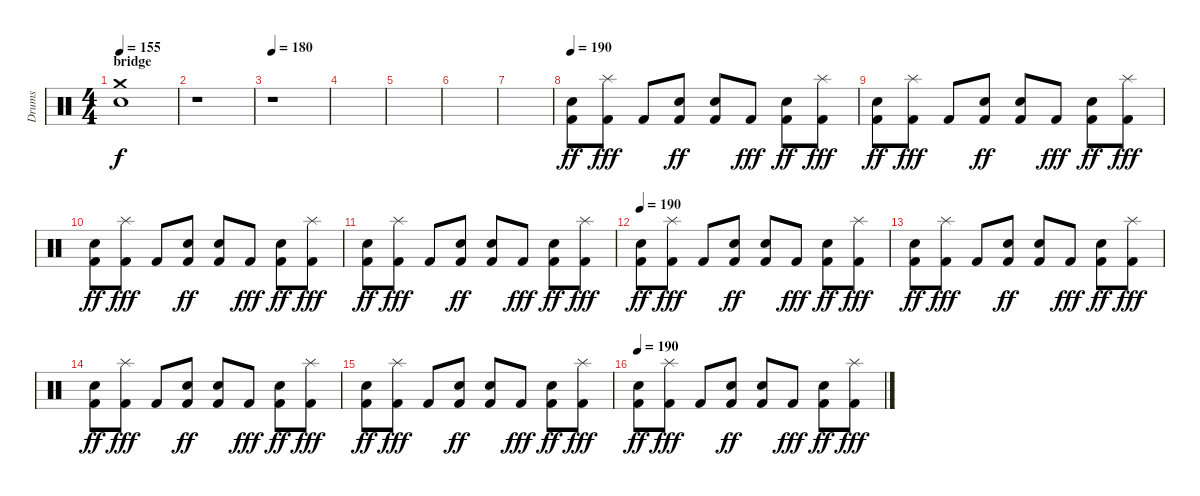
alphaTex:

\track ("Drums" "Drums") {instrument percussion}
\staff {score}
\articulation defaults
\ts (4 4)
\section ("" "bridge")
\tempo 155
\clef neutral
\ks c
("Electric Snare (hit)" "Crash medium (hit)").1{dy f} |
r.1 |
\tempo 180
r.1 |
|
|
|
|
\tempo 190
("Kick (hit) 2" "Electric Snare (hit)").8{dy ff} ("Kick (hit) 2" "Splash (hit)").8{dy fff} "Kick (hit) 2".8 ("Kick (hit) 2" "Electric Snare (hit)").8{dy ff} ("Kick (hit) 2" "Electric Snare (hit)").8 "Kick (hit) 2".8{dy fff} ("Kick (hit) 2" "Electric Snare (hit)").8{dy ff} ("Kick (hit) 2" "Splash (hit)").8{dy fff} |
("Kick (hit) 2" "Electric Snare (hit)").8{dy ff} ("Kick (hit) 2" "Splash (hit)").8{dy fff} "Kick (hit) 2".8 ("Kick (hit) 2" "Electric Snare (hit)").8{dy ff} ("Kick (hit) 2" "Electric Snare (hit)").8 "Kick (hit) 2".8{dy fff} ("Kick (hit) 2" "Electric Snare (hit)").8{dy ff} ("Kick (hit) 2" "Splash (hit)").8{dy fff} |
("Kick (hit) 2" "Electric Snare (hit)").8{dy ff} ("Kick (hit) 2" "Splash (hit)").8{dy fff} "Kick (hit) 2".8 ("Kick (hit) 2" "Electric Snare (hit)").8{dy ff} ("Kick (hit) 2" "Electric Snare (hit)").8 "Kick (hit) 2".8{dy fff} ("Kick (hit) 2" "Electric Snare (hit)").8{dy ff} ("Kick (hit) 2" "Splash (hit)").8{dy fff} |
("Kick (hit) 2" "Electric Snare (hit)").8{dy ff} ("Kick (hit) 2" "Splash (hit)").8{dy fff} "Kick (hit) 2".8 ("Kick (hit) 2" "Electric Snare (hit)").8{dy ff} ("Kick (hit) 2" "Electric Snare (hit)").8 "Kick (hit) 2".8{dy fff} ("Kick (hit) 2" "Electric Snare (hit)").8{dy ff} ("Kick (hit) 2" "Splash (hit)").8{dy fff} |
\tempo 190
("Kick (hit) 2" "Electric Snare (hit)").8{dy ff} ("Kick (hit) 2" "Splash (hit)").8{dy fff} "Kick (hit) 2".8 ("Kick (hit) 2" "Electric Snare (hit)").8{dy ff} ("Kick (hit) 2" "Electric Snare (hit)").8 "Kick (hit) 2".8{dy fff} ("Kick (hit) 2" "Electric Snare (hit)").8{dy ff} ("Kick (hit) 2" "Splash (hit)").8{dy fff} |
("Kick (hit) 2" "Electric Snare (hit)").8{dy ff} ("Kick (hit) 2" "Splash (hit)").8{dy fff} "Kick (hit) 2".8 ("Kick (hit) 2" "Electric Snare (hit)").8{dy ff} ("Kick (hit) 2" "Electric Snare (hit)").8 "Kick (hit) 2".8{dy fff} ("Kick (hit) 2" "Electric Snare (hit)").8{dy ff} ("Kick (hit) 2" "Splash (hit)").8{dy fff} |
("Kick (hit) 2" "Electric Snare (hit)").8{dy ff} ("Kick (hit) 2" "Splash (hit)").8{dy fff} "Kick (hit) 2".8 ("Kick (hit) 2" "Electric Snare (hit)").8{dy ff} ("Kick (hit) 2" "Electric Snare (hit)").8 "Kick (hit) 2".8{dy fff} ("Kick (hit) 2" "Electric Snare (hit)").8{dy ff} ("Kick (hit) 2" "Splash (hit)").8{dy fff} |
("Kick (hit) 2" "Electric Snare (hit)").8{dy ff} ("Kick (hit) 2" "Splash (hit)").8{dy fff} "Kick (hit) 2".8 ("Kick (hit) 2" "Electric Snare (hit)").8{dy ff} ("Kick (hit) 2" "Electric Snare (hit)").8 "Kick (hit) 2".8{dy fff} ("Kick (hit) 2" "Electric Snare (hit)").8{dy ff} ("Kick (hit) 2" "Splash (hit)").8{dy fff} |
\tempo 190
("Kick (hit) 2" "Electric Snare (hit)").8{dy ff} ("Kick (hit) 2" "Splash (hit)").8{dy fff} "Kick (hit) 2".8 ("Kick (hit) 2" "Electric Snare (hit)").8{dy ff} ("Kick (hit) 2" "Electric Snare (hit)").8 "Kick (hit) 2".8{dy fff} ("Kick (hit) 2" "Electric Snare (hit)").8{dy ff} ("Kick (hit) 2" "Splash (hit)").8{dy fff}
